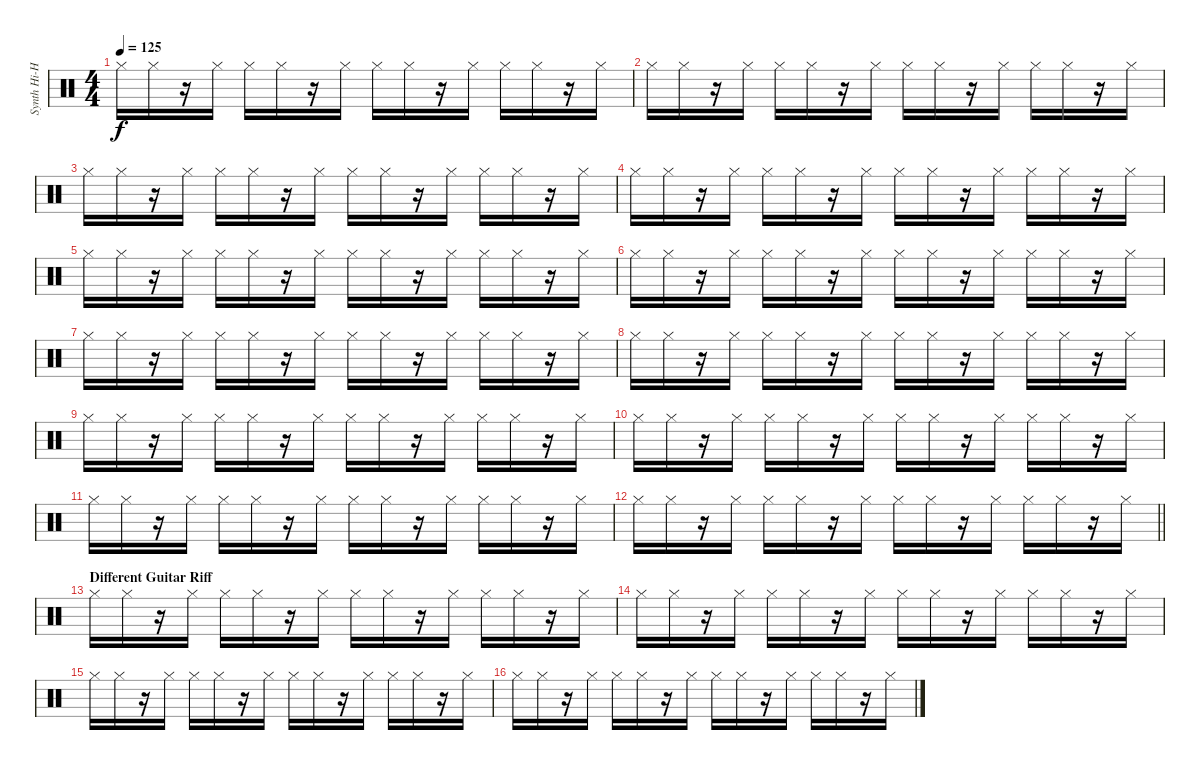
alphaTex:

\track ("Synth Hi-Hat (Gillian)" "Synth Hi-H") {instrument percussion}
\staff {score}
\articulation defaults
\ts (4 4)
\tempo 125
\clef neutral
\ks c "Hi-Hat (closed)".16{dy f} "Hi-Hat (closed)".16
r.16 "Hi-Hat (closed)".16 "Hi-Hat (closed)".16 "Hi-Hat (closed)".16 r.16 "Hi-Hat (closed)".16 "Hi-Hat (closed)".16 "Hi-Hat (closed)".16 r.16 "Hi-Hat (closed)".16 "Hi-Hat (closed)".16 "Hi-Hat (closed)".16 r.16 "Hi-Hat (closed)".16 |
"Hi-Hat (closed)".16 "Hi-Hat (closed)".16 r.16 "Hi-Hat (closed)".16 "Hi-Hat (closed)".16 "Hi-Hat (closed)".16 r.16 "Hi-Hat (closed)".16 "Hi-Hat (closed)".16 "Hi-Hat (closed)".16 r.16 "Hi-Hat (closed)".16 "Hi-Hat (closed)".16 "Hi-Hat (closed)".16 r.16 "Hi-Hat (closed)".16 |
"Hi-Hat (closed)".16 "Hi-Hat (closed)".16 r.16 "Hi-Hat (closed)".16 "Hi-Hat (closed)".16 "Hi-Hat (closed)".16 r.16 "Hi-Hat (closed)".16 "Hi-Hat (closed)".16 "Hi-Hat (closed)".16 r.16 "Hi-Hat (closed)".16 "Hi-Hat (closed)".16 "Hi-Hat (closed)".16 r.16 "Hi-Hat (closed)".16 |
"Hi-Hat (closed)".16 "Hi-Hat (closed)".16 r.16 "Hi-Hat (closed)".16 "Hi-Hat (closed)".16 "Hi-Hat (closed)".16 r.16 "Hi-Hat (closed)".16 "Hi-Hat (closed)".16 "Hi-Hat (closed)".16 r.16 "Hi-Hat (closed)".16 "Hi-Hat (closed)".16 "Hi-Hat (closed)".16 r.16 "Hi-Hat (closed)".16 |
"Hi-Hat (closed)".16 "Hi-Hat (closed)".16 r.16 "Hi-Hat (closed)".16 "Hi-Hat (closed)".16 "Hi-Hat (closed)".16 r.16 "Hi-Hat (closed)".16 "Hi-Hat (closed)".16 "Hi-Hat (closed)".16 r.16 "Hi-Hat (closed)".16 "Hi-Hat (closed)".16 "Hi-Hat (closed)".16 r.16 "Hi-Hat (closed)".16 |
"Hi-Hat (closed)".16 "Hi-Hat (closed)".16 r.16 "Hi-Hat (closed)".16 "Hi-Hat (closed)".16 "Hi-Hat (closed)".16 r.16 "Hi-Hat (closed)".16 "Hi-Hat (closed)".16 "Hi-Hat (closed)".16 r.16 "Hi-Hat (closed)".16 "Hi-Hat (closed)".16 "Hi-Hat (closed)".16 r.16 "Hi-Hat (closed)".16 |
"Hi-Hat (closed)".16 "Hi-Hat (closed)".16 r.16 "Hi-Hat (closed)".16 "Hi-Hat (closed)".16 "Hi-Hat (closed)".16 r.16 "Hi-Hat (closed)".16 "Hi-Hat (closed)".16 "Hi-Hat (closed)".16 r.16 "Hi-Hat (closed)".16 "Hi-Hat (closed)".16 "Hi-Hat (closed)".16 r.16 "Hi-Hat (closed)".16 |
"Hi-Hat (closed)".16 "Hi-Hat (closed)".16 r.16 "Hi-Hat (closed)".16 "Hi-Hat (closed)".16 "Hi-Hat (closed)".16 r.16 "Hi-Hat (closed)".16 "Hi-Hat (closed)".16 "Hi-Hat (closed)".16 r.16 "Hi-Hat (closed)".16 "Hi-Hat (closed)".16 "Hi-Hat (closed)".16 r.16 "Hi-Hat (closed)".16 |
"Hi-Hat (closed)".16 "Hi-Hat (closed)".16 r.16 "Hi-Hat (closed)".16 "Hi-Hat (closed)".16 "Hi-Hat (closed)".16 r.16 "Hi-Hat (closed)".16 "Hi-Hat (closed)".16 "Hi-Hat (closed)".16 r.16 "Hi-Hat (closed)".16 "Hi-Hat (closed)".16 "Hi-Hat (closed)".16 r.16 "Hi-Hat (closed)".16 |
"Hi-Hat (closed)".16 "Hi-Hat (closed)".16 r.16 "Hi-Hat (closed)".16 "Hi-Hat (closed)".16 "Hi-Hat (closed)".16 r.16 "Hi-Hat (closed)".16 "Hi-Hat (closed)".16 "Hi-Hat (closed)".16 r.16 "Hi-Hat (closed)".16 "Hi-Hat (closed)".16 "Hi-Hat (closed)".16 r.16 "Hi-Hat (closed)".16 |
"Hi-Hat (closed)".16 "Hi-Hat (closed)".16 r.16 "Hi-Hat (closed)".16 "Hi-Hat (closed)".16 "Hi-Hat (closed)".16 r.16 "Hi-Hat (closed)".16 "Hi-Hat (closed)".16 "Hi-Hat (closed)".16 r.16 "Hi-Hat (closed)".16 "Hi-Hat (closed)".16 "Hi-Hat (closed)".16 r.16 "Hi-Hat (closed)".16 |
\barLineRight lightlight "Hi-Hat (closed)".16 "Hi-Hat (closed)".16
r.16 "Hi-Hat (closed)".16 "Hi-Hat (closed)".16 "Hi-Hat (closed)".16 r.16 "Hi-Hat (closed)".16 "Hi-Hat (closed)".16 "Hi-Hat (closed)".16 r.16 "Hi-Hat (closed)".16 "Hi-Hat (closed)".16 "Hi-Hat (closed)".16 r.16 "Hi-Hat (closed)".16 |
\section ("" "Different Guitar Riff")
"Hi-Hat (closed)".16 "Hi-Hat (closed)".16 r.16 "Hi-Hat (closed)".16 "Hi-Hat (closed)".16 "Hi-Hat (closed)".16 r.16 "Hi-Hat (closed)".16 "Hi-Hat (closed)".16 "Hi-Hat (closed)".16 r.16 "Hi-Hat (closed)".16 "Hi-Hat (closed)".16 "Hi-Hat (closed)".16 r.16 "Hi-Hat (closed)".16 |
"Hi-Hat (closed)".16 "Hi-Hat (closed)".16 r.16 "Hi-Hat (closed)".16 "Hi-Hat (closed)".16 "Hi-Hat (closed)".16 r.16 "Hi-Hat (closed)".16 "Hi-Hat (closed)".16 "Hi-Hat (closed)".16 r.16 "Hi-Hat (closed)".16 "Hi-Hat (closed)".16 "Hi-Hat (closed)".16 r.16 "Hi-Hat (closed)".16 |
"Hi-Hat (closed)".16 "Hi-Hat (closed)".16 r.16 "Hi-Hat (closed)".16 "Hi-Hat (closed)".16 "Hi-Hat (closed)".16 r.16 "Hi-Hat (closed)".16 "Hi-Hat (closed)".16 "Hi-Hat (closed)".16 r.16 "Hi-Hat (closed)".16 "Hi-Hat (closed)".16 "Hi-Hat (closed)".16 r.16 "Hi-Hat (closed)".16 |
"Hi-Hat (closed)".16 "Hi-Hat (closed)".16 r.16 "Hi-Hat (closed)".16 "Hi-Hat (closed)".16 "Hi-Hat (closed)".16 r.16 "Hi-Hat (closed)".16 "Hi-Hat (closed)".16 "Hi-Hat (closed)".16 r.16 "Hi-Hat (closed)".16 "Hi-Hat (closed)".16 "Hi-Hat (closed)".16 r.16 "Hi-Hat (closed)".16
